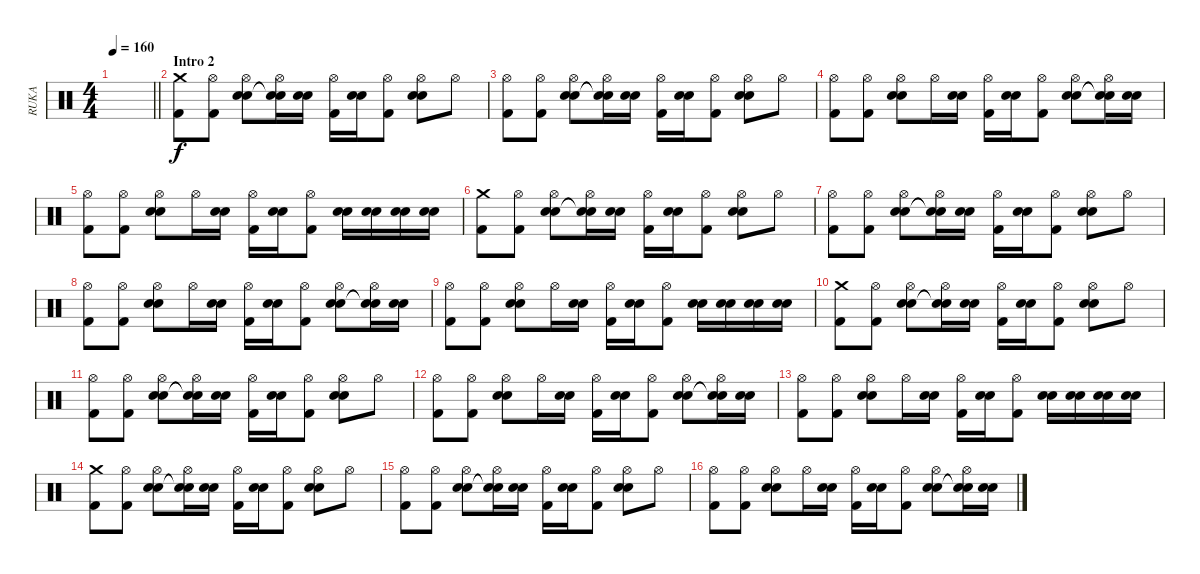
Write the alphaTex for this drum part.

\track ("RUKA" "RUKA") {instrument percussion}
\staff {score}
\articulation defaults
\ts (4 4)
\tempo 160
\clef neutral
\barLineRight lightlight
\ks c
|
\section ("" "Intro 2")
("Crash medium (hit)" "Kick (hit) 2").8 ("Hi-Hat (open)" "Kick (hit) 2").8 ("Hi-Hat (open)" "Snare (hit) 2" "Electric Snare (hit)").8 ("Hi-Hat (open)" "Snare (hit)"{t} "Snare (hit)"{t}).16 ("Snare (hit) 2" "Electric Snare (hit)").16 ("Hi-Hat (open)" "Kick (hit) 2").16 ("Snare (hit) 2" "Electric Snare (hit)").16 ("Hi-Hat (open)" "Kick (hit) 2").8 ("Hi-Hat (open)" "Snare (hit) 2" "Electric Snare (hit)").8 "Hi-Hat (open)".8 |
("Hi-Hat (open)" "Kick (hit) 2").8 ("Hi-Hat (open)" "Kick (hit) 2").8 ("Hi-Hat (open)" "Snare (hit) 2" "Electric Snare (hit)").8 ("Hi-Hat (open)" "Snare (hit)"{t} "Snare (hit)"{t}).16 ("Snare (hit) 2" "Electric Snare (hit)").16 ("Hi-Hat (open)" "Kick (hit) 2").16 ("Snare (hit) 2" "Electric Snare (hit)").16 ("Hi-Hat (open)" "Kick (hit) 2").8 ("Hi-Hat (open)" "Snare (hit) 2" "Electric Snare (hit)").8 "Hi-Hat (open)".8 |
("Hi-Hat (open)" "Kick (hit) 2").8 ("Hi-Hat (open)" "Kick (hit) 2").8 ("Hi-Hat (open)" "Snare (hit) 2" "Electric Snare (hit)").8 "Hi-Hat (open)".16 ("Snare (hit) 2" "Electric Snare (hit)").16 ("Hi-Hat (open)" "Kick (hit) 2").16 ("Snare (hit) 2" "Electric Snare (hit)").16 ("Hi-Hat (open)" "Kick (hit) 2").8 ("Hi-Hat (open)" "Snare (hit) 2" "Electric Snare (hit)").8 ("Hi-Hat (open)" "Snare (hit)"{t} "Snare (hit)"{t}).16 ("Snare (hit) 2" "Electric Snare (hit)").16 |
("Hi-Hat (open)" "Kick (hit) 2").8 ("Hi-Hat (open)" "Kick (hit) 2").8 ("Hi-Hat (open)" "Snare (hit) 2" "Electric Snare (hit)").8 "Hi-Hat (open)".16 ("Snare (hit) 2" "Electric Snare (hit)").16 ("Hi-Hat (open)" "Kick (hit) 2").16 ("Snare (hit) 2" "Electric Snare (hit)").16 ("Hi-Hat (open)" "Kick (hit) 2").8 ("Snare (hit) 2" "Electric Snare (hit)").16 ("Snare (hit) 2" "Electric Snare (hit)").16 ("Snare (hit) 2" "Electric Snare (hit)").16 ("Snare (hit) 2" "Electric Snare (hit)").16 |
("Crash medium (hit)" "Kick (hit) 2").8 ("Hi-Hat (open)" "Kick (hit) 2").8 ("Hi-Hat (open)" "Snare (hit) 2" "Electric Snare (hit)").8 ("Hi-Hat (open)" "Snare (hit)"{t} "Snare (hit)"{t}).16 ("Snare (hit) 2" "Electric Snare (hit)").16 ("Hi-Hat (open)" "Kick (hit) 2").16 ("Snare (hit) 2" "Electric Snare (hit)").16 ("Hi-Hat (open)" "Kick (hit) 2").8 ("Hi-Hat (open)" "Snare (hit) 2" "Electric Snare (hit)").8 "Hi-Hat (open)".8 |
("Hi-Hat (open)" "Kick (hit) 2").8 ("Hi-Hat (open)" "Kick (hit) 2").8 ("Hi-Hat (open)" "Snare (hit) 2" "Electric Snare (hit)").8 ("Hi-Hat (open)" "Snare (hit)"{t} "Snare (hit)"{t}).16 ("Snare (hit) 2" "Electric Snare (hit)").16 ("Hi-Hat (open)" "Kick (hit) 2").16 ("Snare (hit) 2" "Electric Snare (hit)").16 ("Hi-Hat (open)" "Kick (hit) 2").8 ("Hi-Hat (open)" "Snare (hit) 2" "Electric Snare (hit)").8 "Hi-Hat (open)".8 |
("Hi-Hat (open)" "Kick (hit) 2").8 ("Hi-Hat (open)" "Kick (hit) 2").8 ("Hi-Hat (open)" "Snare (hit) 2" "Electric Snare (hit)").8 "Hi-Hat (open)".16 ("Snare (hit) 2" "Electric Snare (hit)").16 ("Hi-Hat (open)" "Kick (hit) 2").16 ("Snare (hit) 2" "Electric Snare (hit)").16 ("Hi-Hat (open)" "Kick (hit) 2").8 ("Hi-Hat (open)" "Snare (hit) 2" "Electric Snare (hit)").8 ("Hi-Hat (open)" "Snare (hit)"{t} "Snare (hit)"{t}).16 ("Snare (hit) 2" "Electric Snare (hit)").16 |
("Hi-Hat (open)" "Kick (hit) 2").8 ("Hi-Hat (open)" "Kick (hit) 2").8 ("Hi-Hat (open)" "Snare (hit) 2" "Electric Snare (hit)").8 "Hi-Hat (open)".16 ("Snare (hit) 2" "Electric Snare (hit)").16 ("Hi-Hat (open)" "Kick (hit) 2").16 ("Snare (hit) 2" "Electric Snare (hit)").16 ("Hi-Hat (open)" "Kick (hit) 2").8 ("Snare (hit) 2" "Electric Snare (hit)").16 ("Snare (hit) 2" "Electric Snare (hit)").16 ("Snare (hit) 2" "Electric Snare (hit)").16 ("Snare (hit) 2" "Electric Snare (hit)").16 |
("Crash medium (hit)" "Kick (hit) 2").8 ("Hi-Hat (open)" "Kick (hit) 2").8 ("Hi-Hat (open)" "Snare (hit) 2" "Electric Snare (hit)").8 ("Hi-Hat (open)" "Snare (hit)"{t} "Snare (hit)"{t}).16 ("Snare (hit) 2" "Electric Snare (hit)").16 ("Hi-Hat (open)" "Kick (hit) 2").16 ("Snare (hit) 2" "Electric Snare (hit)").16 ("Hi-Hat (open)" "Kick (hit) 2").8 ("Hi-Hat (open)" "Snare (hit) 2" "Electric Snare (hit)").8 "Hi-Hat (open)".8 |
("Hi-Hat (open)" "Kick (hit) 2").8 ("Hi-Hat (open)" "Kick (hit) 2").8 ("Hi-Hat (open)" "Snare (hit) 2" "Electric Snare (hit)").8 ("Hi-Hat (open)" "Snare (hit)"{t} "Snare (hit)"{t}).16 ("Snare (hit) 2" "Electric Snare (hit)").16 ("Hi-Hat (open)" "Kick (hit) 2").16 ("Snare (hit) 2" "Electric Snare (hit)").16 ("Hi-Hat (open)" "Kick (hit) 2").8 ("Hi-Hat (open)" "Snare (hit) 2" "Electric Snare (hit)").8 "Hi-Hat (open)".8 |
("Hi-Hat (open)" "Kick (hit) 2").8 ("Hi-Hat (open)" "Kick (hit) 2").8 ("Hi-Hat (open)" "Snare (hit) 2" "Electric Snare (hit)").8 "Hi-Hat (open)".16 ("Snare (hit) 2" "Electric Snare (hit)").16 ("Hi-Hat (open)" "Kick (hit) 2").16 ("Snare (hit) 2" "Electric Snare (hit)").16 ("Hi-Hat (open)" "Kick (hit) 2").8 ("Hi-Hat (open)" "Snare (hit) 2" "Electric Snare (hit)").8 ("Hi-Hat (open)" "Snare (hit)"{t} "Snare (hit)"{t}).16 ("Snare (hit) 2" "Electric Snare (hit)").16 |
("Hi-Hat (open)" "Kick (hit) 2").8 ("Hi-Hat (open)" "Kick (hit) 2").8 ("Hi-Hat (open)" "Snare (hit) 2" "Electric Snare (hit)").8 "Hi-Hat (open)".16 ("Snare (hit) 2" "Electric Snare (hit)").16 ("Hi-Hat (open)" "Kick (hit) 2").16 ("Snare (hit) 2" "Electric Snare (hit)").16 ("Hi-Hat (open)" "Kick (hit) 2").8 ("Snare (hit) 2" "Electric Snare (hit)").16 ("Snare (hit) 2" "Electric Snare (hit)").16 ("Snare (hit) 2" "Electric Snare (hit)").16 ("Snare (hit) 2" "Electric Snare (hit)").16 |
("Crash medium (hit)" "Kick (hit) 2").8 ("Hi-Hat (open)" "Kick (hit) 2").8 ("Hi-Hat (open)" "Snare (hit) 2" "Electric Snare (hit)").8 ("Hi-Hat (open)" "Snare (hit)"{t} "Snare (hit)"{t}).16 ("Snare (hit) 2" "Electric Snare (hit)").16 ("Hi-Hat (open)" "Kick (hit) 2").16 ("Snare (hit) 2" "Electric Snare (hit)").16 ("Hi-Hat (open)" "Kick (hit) 2").8 ("Hi-Hat (open)" "Snare (hit) 2" "Electric Snare (hit)").8 "Hi-Hat (open)".8 |
("Hi-Hat (open)" "Kick (hit) 2").8 ("Hi-Hat (open)" "Kick (hit) 2").8 ("Hi-Hat (open)" "Snare (hit) 2" "Electric Snare (hit)").8 ("Hi-Hat (open)" "Snare (hit)"{t} "Snare (hit)"{t}).16 ("Snare (hit) 2" "Electric Snare (hit)").16 ("Hi-Hat (open)" "Kick (hit) 2").16 ("Snare (hit) 2" "Electric Snare (hit)").16 ("Hi-Hat (open)" "Kick (hit) 2").8 ("Hi-Hat (open)" "Snare (hit) 2" "Electric Snare (hit)").8 "Hi-Hat (open)".8 |
("Hi-Hat (open)" "Kick (hit) 2").8 ("Hi-Hat (open)" "Kick (hit) 2").8 ("Hi-Hat (open)" "Snare (hit) 2" "Electric Snare (hit)").8 "Hi-Hat (open)".16 ("Snare (hit) 2" "Electric Snare (hit)").16 ("Hi-Hat (open)" "Kick (hit) 2").16 ("Snare (hit) 2" "Electric Snare (hit)").16 ("Hi-Hat (open)" "Kick (hit) 2").8 ("Hi-Hat (open)" "Snare (hit) 2" "Electric Snare (hit)").8 ("Hi-Hat (open)" "Snare (hit)"{t} "Snare (hit)"{t}).16 ("Snare (hit) 2" "Electric Snare (hit)").16
